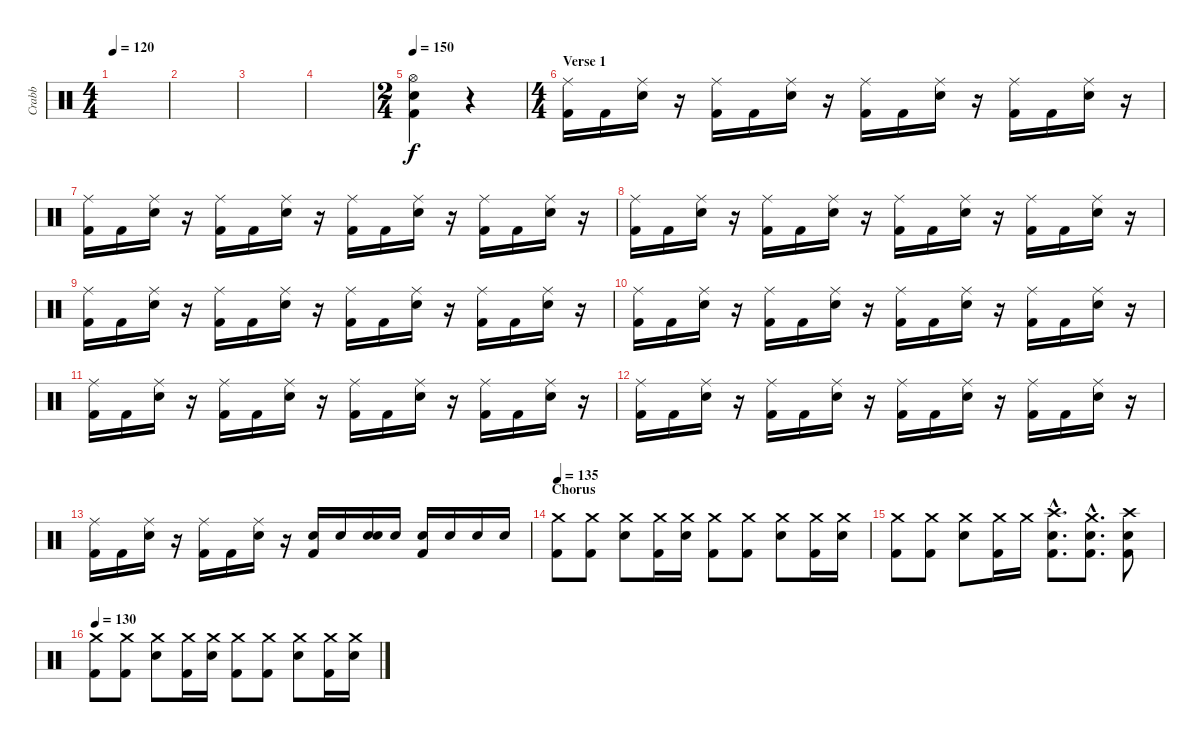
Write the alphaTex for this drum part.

\track ("Crabb" "Crabb") {instrument percussion}
\staff {score}
\articulation defaults
\ts (4 4)
\tempo 120
\clef neutral
\ks c
|
|
|
|
\ts (2 4)
\tempo 150
("Electric Snare (hit)" "Kick (hit) 2" "Hi-Hat (open)").4 r.4 |
\ts (4 4)
\section ("" "Verse 1")
("Ride (middle)" "Kick (hit) 2").16 "Kick (hit) 2".16 ("Ride (middle)" "Electric Snare (hit)").16 r.16 ("Ride (middle)" "Kick (hit) 2").16 "Kick (hit) 2".16 ("Ride (middle)" "Electric Snare (hit)").16 r.16 ("Ride (middle)" "Kick (hit) 2").16 "Kick (hit) 2".16 ("Ride (middle)" "Electric Snare (hit)").16 r.16 ("Ride (middle)" "Kick (hit) 2").16 "Kick (hit) 2".16 ("Ride (middle)" "Electric Snare (hit)").16 r.16 |
("Ride (middle)" "Kick (hit) 2").16 "Kick (hit) 2".16 ("Ride (middle)" "Electric Snare (hit)").16 r.16 ("Ride (middle)" "Kick (hit) 2").16 "Kick (hit) 2".16 ("Ride (middle)" "Electric Snare (hit)").16 r.16 ("Ride (middle)" "Kick (hit) 2").16 "Kick (hit) 2".16 ("Ride (middle)" "Electric Snare (hit)").16 r.16 ("Ride (middle)" "Kick (hit) 2").16 "Kick (hit) 2".16 ("Ride (middle)" "Electric Snare (hit)").16 r.16 |
("Ride (middle)" "Kick (hit) 2").16 "Kick (hit) 2".16 ("Ride (middle)" "Electric Snare (hit)").16 r.16 ("Ride (middle)" "Kick (hit) 2").16 "Kick (hit) 2".16 ("Ride (middle)" "Electric Snare (hit)").16 r.16 ("Ride (middle)" "Kick (hit) 2").16 "Kick (hit) 2".16 ("Ride (middle)" "Electric Snare (hit)").16 r.16 ("Ride (middle)" "Kick (hit) 2").16 "Kick (hit) 2".16 ("Ride (middle)" "Electric Snare (hit)").16 r.16 |
("Ride (middle)" "Kick (hit) 2").16 "Kick (hit) 2".16 ("Ride (middle)" "Electric Snare (hit)").16 r.16 ("Ride (middle)" "Kick (hit) 2").16 "Kick (hit) 2".16 ("Ride (middle)" "Electric Snare (hit)").16 r.16 ("Ride (middle)" "Kick (hit) 2").16 "Kick (hit) 2".16 ("Ride (middle)" "Electric Snare (hit)").16 r.16 ("Ride (middle)" "Kick (hit) 2").16 "Kick (hit) 2".16 ("Ride (middle)" "Electric Snare (hit)").16 r.16 |
("Ride (middle)" "Kick (hit) 2").16 "Kick (hit) 2".16 ("Ride (middle)" "Electric Snare (hit)").16 r.16 ("Ride (middle)" "Kick (hit) 2").16 "Kick (hit) 2".16 ("Ride (middle)" "Electric Snare (hit)").16 r.16 ("Ride (middle)" "Kick (hit) 2").16 "Kick (hit) 2".16 ("Ride (middle)" "Electric Snare (hit)").16 r.16 ("Ride (middle)" "Kick (hit) 2").16 "Kick (hit) 2".16 ("Ride (middle)" "Electric Snare (hit)").16 r.16 |
("Ride (middle)" "Kick (hit) 2").16 "Kick (hit) 2".16 ("Ride (middle)" "Electric Snare (hit)").16 r.16 ("Ride (middle)" "Kick (hit) 2").16 "Kick (hit) 2".16 ("Ride (middle)" "Electric Snare (hit)").16 r.16 ("Ride (middle)" "Kick (hit) 2").16 "Kick (hit) 2".16 ("Ride (middle)" "Electric Snare (hit)").16 r.16 ("Ride (middle)" "Kick (hit) 2").16 "Kick (hit) 2".16 ("Ride (middle)" "Electric Snare (hit)").16 r.16 |
("Ride (middle)" "Kick (hit) 2").16 "Kick (hit) 2".16 ("Ride (middle)" "Electric Snare (hit)").16 r.16 ("Ride (middle)" "Kick (hit) 2").16 "Kick (hit) 2".16 ("Ride (middle)" "Electric Snare (hit)").16 r.16 ("Ride (middle)" "Kick (hit) 2").16 "Kick (hit) 2".16 ("Ride (middle)" "Electric Snare (hit)").16 r.16 ("Ride (middle)" "Kick (hit) 2").16 "Kick (hit) 2".16 ("Ride (middle)" "Electric Snare (hit)").16 r.16 |
("Ride (middle)" "Kick (hit) 2").16 "Kick (hit) 2".16 ("Ride (middle)" "Electric Snare (hit)").16 r.16 ("Ride (middle)" "Kick (hit) 2").16 "Kick (hit) 2".16 ("Ride (middle)" "Electric Snare (hit)").16 r.16 ("Electric Snare (hit)" "Kick (hit) 2").16 "Electric Snare (hit)".16 ("Electric Snare (hit)" "Electric Snare (hit)").16 "Electric Snare (hit)".16 ("Electric Snare (hit)" "Kick (hit) 2").16 "Electric Snare (hit)".16 "Electric Snare (hit)".16 "Electric Snare (hit)".16 |
\section ("" "Chorus")
\tempo 130
\tempo 135
("Crash medium (hit)" "Kick (hit) 2").8 ("Crash medium (hit)" "Kick (hit) 2").8 ("Crash medium (hit)" "Electric Snare (hit)").8 ("Crash medium (hit)" "Kick (hit) 2").16 ("Crash medium (hit)" "Electric Snare (hit)").16 ("Crash medium (hit)" "Kick (hit) 2").8 ("Crash medium (hit)" "Kick (hit) 2").8 ("Crash medium (hit)" "Electric Snare (hit)").8 ("Crash medium (hit)" "Kick (hit) 2").16 ("Crash medium (hit)" "Electric Snare (hit)").16 |
("Crash medium (hit)" "Kick (hit) 2").8 ("Crash medium (hit)" "Kick (hit) 2").8 ("Crash medium (hit)" "Electric Snare (hit)").8 ("Crash medium (hit)" "Kick (hit) 2").16 "Crash medium (hit)".16 ("Crash high (hit)"{hac} "Kick (hit) 2"{hac} "Electric Snare (hit)"{hac}).8{d} ("Crash medium (hit)"{hac} "Kick (hit) 2"{hac} "Electric Snare (hit)"{hac}).8{d} ("Crash high (hit)" "Kick (hit) 2" "Electric Snare (hit)").8 |
\tempo 130
("Crash medium (hit)" "Kick (hit) 2").8 ("Crash medium (hit)" "Kick (hit) 2").8 ("Crash medium (hit)" "Electric Snare (hit)").8 ("Crash medium (hit)" "Kick (hit) 2").16 ("Crash medium (hit)" "Electric Snare (hit)").16 ("Crash medium (hit)" "Kick (hit) 2").8 ("Crash medium (hit)" "Kick (hit) 2").8 ("Crash medium (hit)" "Electric Snare (hit)").8 ("Crash medium (hit)" "Kick (hit) 2").16 ("Crash medium (hit)" "Electric Snare (hit)").16
